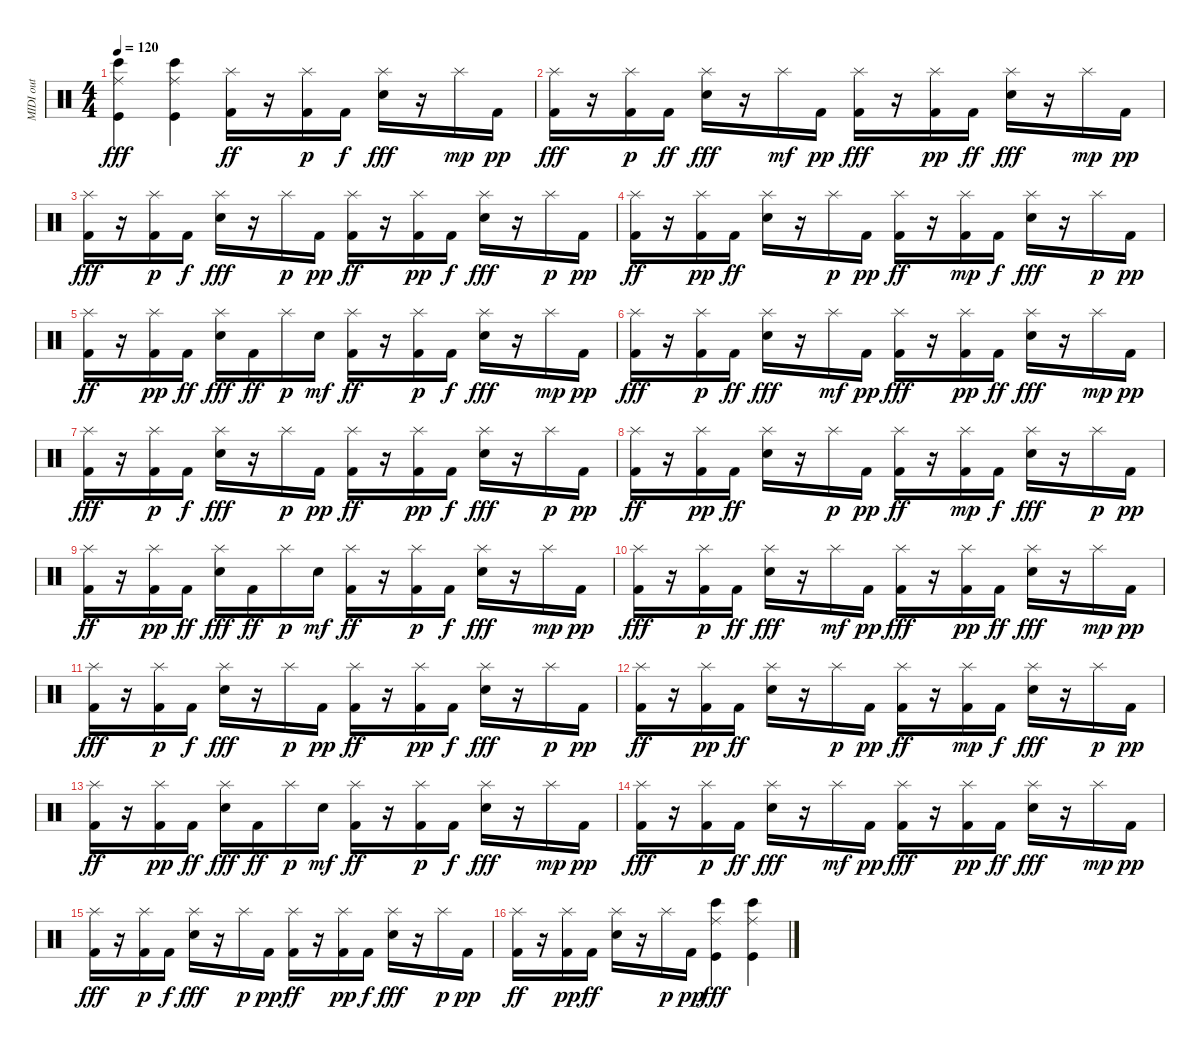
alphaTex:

\track ("MIDI out" "MIDI out") {instrument percussion}
\staff {score}
\articulation defaults
\ts (4 4)
\tempo 120
\clef neutral
\ks c
("Bongo High (hit)" "Ride (middle)" "Kick (hit)").4{dy fff} ("Kick (hit)" "Ride (middle)" "Bongo High (hit)").4 ("Splash (hit)" "Kick (hit) 2").16{dy ff} r.16 ("Kick (hit) 2" "Splash (hit)").16{dy p} "Kick (hit) 2".16{dy f} ("Splash (hit)" "Snare (hit) 2").16{dy fff} r.16 "Splash (hit)".16{dy mp} "Kick (hit) 2".16{dy pp} |
("Kick (hit) 2" "Splash (hit)").16{dy fff} r.16 ("Splash (hit)" "Kick (hit) 2").16{dy p} "Kick (hit) 2".16{dy ff} ("Splash (hit)" "Snare (hit) 2").16{dy fff} r.16 "Splash (hit)".16{dy mf} "Kick (hit) 2".16{dy pp} ("Kick (hit) 2" "Splash (hit)").16{dy fff} r.16 ("Splash (hit)" "Kick (hit) 2").16{dy pp} "Kick (hit) 2".16{dy ff} ("Snare (hit) 2" "Splash (hit)").16{dy fff} r.16 "Splash (hit)".16{dy mp} "Kick (hit) 2".16{dy pp} |
("Kick (hit) 2" "Splash (hit)").16{dy fff} r.16 ("Splash (hit)" "Kick (hit) 2").16{dy p} "Kick (hit) 2".16{dy f} ("Splash (hit)" "Snare (hit) 2").16{dy fff} r.16 "Splash (hit)".16{dy p} "Kick (hit) 2".16{dy pp} ("Splash (hit)" "Kick (hit) 2").16{dy ff} r.16 ("Splash (hit)" "Kick (hit) 2").16{dy pp} "Kick (hit) 2".16{dy f} ("Splash (hit)" "Snare (hit) 2").16{dy fff} r.16 "Splash (hit)".16{dy p} "Kick (hit) 2".16{dy pp} |
("Splash (hit)" "Kick (hit) 2").16{dy ff} r.16 ("Splash (hit)" "Kick (hit) 2").16{dy pp} "Kick (hit) 2".16{dy ff} ("Snare (hit) 2" "Splash (hit)").16 r.16 "Splash (hit)".16{dy p} "Kick (hit) 2".16{dy pp} ("Splash (hit)" "Kick (hit) 2").16{dy ff} r.16 ("Kick (hit) 2" "Splash (hit)").16{dy mp} "Kick (hit) 2".16{dy f} ("Snare (hit) 2" "Splash (hit)").16{dy fff} r.16 "Splash (hit)".16{dy p} "Kick (hit) 2".16{dy pp} |
("Kick (hit) 2" "Splash (hit)").16{dy ff} r.16 ("Splash (hit)" "Kick (hit) 2").16{dy pp} "Kick (hit) 2".16{dy ff} ("Splash (hit)" "Snare (hit) 2").16{dy fff} "Kick (hit) 2".16{dy ff} "Splash (hit)".16{dy p} "Snare (hit) 2".16{dy mf} ("Splash (hit)" "Kick (hit) 2").16{dy ff} r.16 ("Kick (hit) 2" "Splash (hit)").16{dy p} "Kick (hit) 2".16{dy f} ("Splash (hit)" "Snare (hit) 2").16{dy fff} r.16 "Splash (hit)".16{dy mp} "Kick (hit) 2".16{dy pp} |
("Kick (hit) 2" "Splash (hit)").16{dy fff} r.16 ("Splash (hit)" "Kick (hit) 2").16{dy p} "Kick (hit) 2".16{dy ff} ("Splash (hit)" "Snare (hit) 2").16{dy fff} r.16 "Splash (hit)".16{dy mf} "Kick (hit) 2".16{dy pp} ("Kick (hit) 2" "Splash (hit)").16{dy fff} r.16 ("Splash (hit)" "Kick (hit) 2").16{dy pp} "Kick (hit) 2".16{dy ff} ("Snare (hit) 2" "Splash (hit)").16{dy fff} r.16 "Splash (hit)".16{dy mp} "Kick (hit) 2".16{dy pp} |
("Kick (hit) 2" "Splash (hit)").16{dy fff} r.16 ("Splash (hit)" "Kick (hit) 2").16{dy p} "Kick (hit) 2".16{dy f} ("Splash (hit)" "Snare (hit) 2").16{dy fff} r.16 "Splash (hit)".16{dy p} "Kick (hit) 2".16{dy pp} ("Splash (hit)" "Kick (hit) 2").16{dy ff} r.16 ("Splash (hit)" "Kick (hit) 2").16{dy pp} "Kick (hit) 2".16{dy f} ("Splash (hit)" "Snare (hit) 2").16{dy fff} r.16 "Splash (hit)".16{dy p} "Kick (hit) 2".16{dy pp} |
("Splash (hit)" "Kick (hit) 2").16{dy ff} r.16 ("Splash (hit)" "Kick (hit) 2").16{dy pp} "Kick (hit) 2".16{dy ff} ("Snare (hit) 2" "Splash (hit)").16 r.16 "Splash (hit)".16{dy p} "Kick (hit) 2".16{dy pp} ("Splash (hit)" "Kick (hit) 2").16{dy ff} r.16 ("Kick (hit) 2" "Splash (hit)").16{dy mp} "Kick (hit) 2".16{dy f} ("Snare (hit) 2" "Splash (hit)").16{dy fff} r.16 "Splash (hit)".16{dy p} "Kick (hit) 2".16{dy pp} |
("Kick (hit) 2" "Splash (hit)").16{dy ff} r.16 ("Splash (hit)" "Kick (hit) 2").16{dy pp} "Kick (hit) 2".16{dy ff} ("Splash (hit)" "Snare (hit) 2").16{dy fff} "Kick (hit) 2".16{dy ff} "Splash (hit)".16{dy p} "Snare (hit) 2".16{dy mf} ("Splash (hit)" "Kick (hit) 2").16{dy ff} r.16 ("Kick (hit) 2" "Splash (hit)").16{dy p} "Kick (hit) 2".16{dy f} ("Splash (hit)" "Snare (hit) 2").16{dy fff} r.16 "Splash (hit)".16{dy mp} "Kick (hit) 2".16{dy pp} |
("Kick (hit) 2" "Splash (hit)").16{dy fff} r.16 ("Splash (hit)" "Kick (hit) 2").16{dy p} "Kick (hit) 2".16{dy ff} ("Splash (hit)" "Snare (hit) 2").16{dy fff} r.16 "Splash (hit)".16{dy mf} "Kick (hit) 2".16{dy pp} ("Kick (hit) 2" "Splash (hit)").16{dy fff} r.16 ("Splash (hit)" "Kick (hit) 2").16{dy pp} "Kick (hit) 2".16{dy ff} ("Snare (hit) 2" "Splash (hit)").16{dy fff} r.16 "Splash (hit)".16{dy mp} "Kick (hit) 2".16{dy pp} |
("Kick (hit) 2" "Splash (hit)").16{dy fff} r.16 ("Splash (hit)" "Kick (hit) 2").16{dy p} "Kick (hit) 2".16{dy f} ("Splash (hit)" "Snare (hit) 2").16{dy fff} r.16 "Splash (hit)".16{dy p} "Kick (hit) 2".16{dy pp} ("Splash (hit)" "Kick (hit) 2").16{dy ff} r.16 ("Splash (hit)" "Kick (hit) 2").16{dy pp} "Kick (hit) 2".16{dy f} ("Splash (hit)" "Snare (hit) 2").16{dy fff} r.16 "Splash (hit)".16{dy p} "Kick (hit) 2".16{dy pp} |
("Splash (hit)" "Kick (hit) 2").16{dy ff} r.16 ("Splash (hit)" "Kick (hit) 2").16{dy pp} "Kick (hit) 2".16{dy ff} ("Snare (hit) 2" "Splash (hit)").16 r.16 "Splash (hit)".16{dy p} "Kick (hit) 2".16{dy pp} ("Splash (hit)" "Kick (hit) 2").16{dy ff} r.16 ("Kick (hit) 2" "Splash (hit)").16{dy mp} "Kick (hit) 2".16{dy f} ("Snare (hit) 2" "Splash (hit)").16{dy fff} r.16 "Splash (hit)".16{dy p} "Kick (hit) 2".16{dy pp} |
("Kick (hit) 2" "Splash (hit)").16{dy ff} r.16 ("Splash (hit)" "Kick (hit) 2").16{dy pp} "Kick (hit) 2".16{dy ff} ("Splash (hit)" "Snare (hit) 2").16{dy fff} "Kick (hit) 2".16{dy ff} "Splash (hit)".16{dy p} "Snare (hit) 2".16{dy mf} ("Splash (hit)" "Kick (hit) 2").16{dy ff} r.16 ("Kick (hit) 2" "Splash (hit)").16{dy p} "Kick (hit) 2".16{dy f} ("Splash (hit)" "Snare (hit) 2").16{dy fff} r.16 "Splash (hit)".16{dy mp} "Kick (hit) 2".16{dy pp} |
("Kick (hit) 2" "Splash (hit)").16{dy fff} r.16 ("Splash (hit)" "Kick (hit) 2").16{dy p} "Kick (hit) 2".16{dy ff} ("Splash (hit)" "Snare (hit) 2").16{dy fff} r.16 "Splash (hit)".16{dy mf} "Kick (hit) 2".16{dy pp} ("Kick (hit) 2" "Splash (hit)").16{dy fff} r.16 ("Splash (hit)" "Kick (hit) 2").16{dy pp} "Kick (hit) 2".16{dy ff} ("Snare (hit) 2" "Splash (hit)").16{dy fff} r.16 "Splash (hit)".16{dy mp} "Kick (hit) 2".16{dy pp} |
("Kick (hit) 2" "Splash (hit)").16{dy fff} r.16 ("Splash (hit)" "Kick (hit) 2").16{dy p} "Kick (hit) 2".16{dy f} ("Splash (hit)" "Snare (hit) 2").16{dy fff} r.16 "Splash (hit)".16{dy p} "Kick (hit) 2".16{dy pp} ("Splash (hit)" "Kick (hit) 2").16{dy ff} r.16 ("Splash (hit)" "Kick (hit) 2").16{dy pp} "Kick (hit) 2".16{dy f} ("Splash (hit)" "Snare (hit) 2").16{dy fff} r.16 "Splash (hit)".16{dy p} "Kick (hit) 2".16{dy pp} |
("Splash (hit)" "Kick (hit) 2").16{dy ff} r.16 ("Splash (hit)" "Kick (hit) 2").16{dy pp} "Kick (hit) 2".16{dy ff} ("Snare (hit) 2" "Splash (hit)").16 r.16 "Splash (hit)".16{dy p} "Kick (hit) 2".16{dy pp} ("Ride (middle)" "Bongo High (hit)" "Kick (hit)").4{dy fff} ("Kick (hit)" "Ride (middle)" "Bongo High (hit)").4
